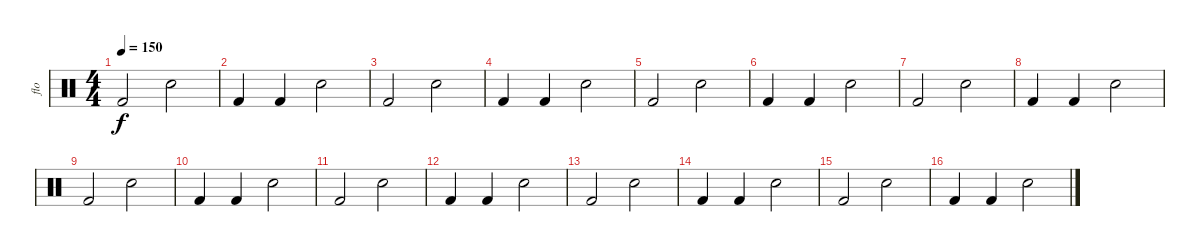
\track ("flo" "flo") {instrument percussion}
\staff {score}
\articulation defaults
\ts (4 4)
\tempo 150
\clef neutral
\ks c "Kick (hit) 2".2{dy f} "Electric Snare (hit)".2
|
"Kick (hit) 2".4 "Kick (hit) 2".4 "Electric Snare (hit)".2 |
"Kick (hit) 2".2 "Electric Snare (hit)".2 |
"Kick (hit) 2".4 "Kick (hit) 2".4 "Electric Snare (hit)".2 |
"Kick (hit) 2".2 "Electric Snare (hit)".2 |
"Kick (hit) 2".4 "Kick (hit) 2".4 "Electric Snare (hit)".2 |
"Kick (hit) 2".2 "Electric Snare (hit)".2 |
"Kick (hit) 2".4 "Kick (hit) 2".4 "Electric Snare (hit)".2 |
"Kick (hit) 2".2 "Electric Snare (hit)".2 |
"Kick (hit) 2".4 "Kick (hit) 2".4 "Electric Snare (hit)".2 |
"Kick (hit) 2".2 "Electric Snare (hit)".2 |
"Kick (hit) 2".4 "Kick (hit) 2".4 "Electric Snare (hit)".2 |
"Kick (hit) 2".2 "Electric Snare (hit)".2 |
"Kick (hit) 2".4 "Kick (hit) 2".4 "Electric Snare (hit)".2 |
"Kick (hit) 2".2 "Electric Snare (hit)".2 |
"Kick (hit) 2".4 "Kick (hit) 2".4 "Electric Snare (hit)".2
